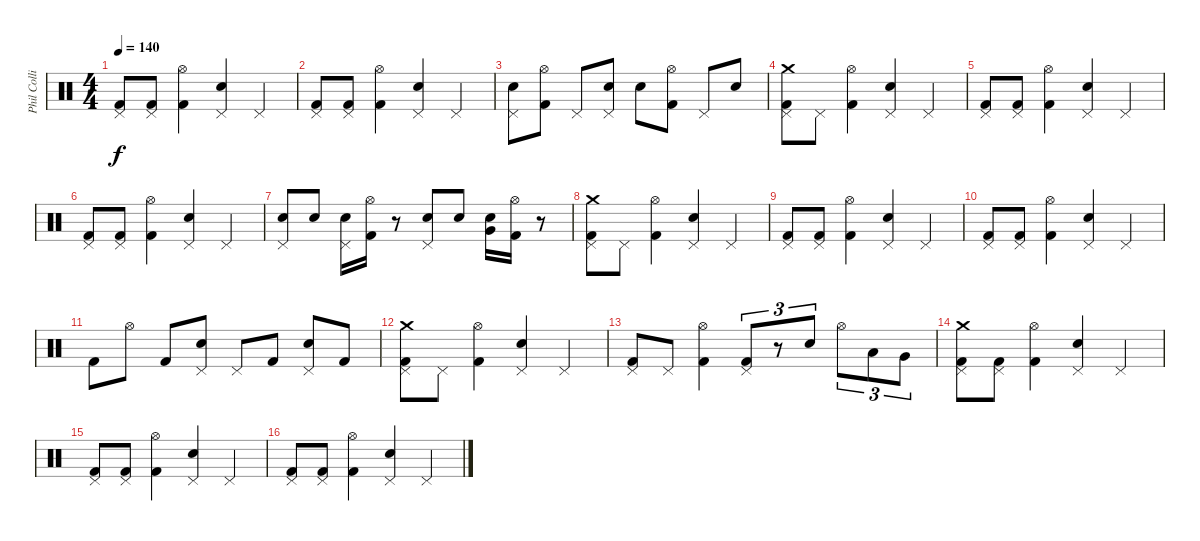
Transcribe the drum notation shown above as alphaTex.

\track ("Phil Collins (drums)" "Phil Colli") {instrument percussion}
\staff {score}
\articulation defaults
\ts (4 4)
\tempo 140
\clef neutral
\ks c
("Pedal Hi-Hat (hit)" "Kick (hit) 2").8{dy f} ("Pedal Hi-Hat (hit)" "Kick (hit) 2").8 ("Hi-Hat (open)" "Kick (hit) 2").4 ("Pedal Hi-Hat (hit)" "Electric Snare (hit)").4 "Pedal Hi-Hat (hit)".4 |
("Pedal Hi-Hat (hit)" "Kick (hit) 2").8 ("Pedal Hi-Hat (hit)" "Kick (hit) 2").8 ("Hi-Hat (open)" "Kick (hit) 2").4 ("Pedal Hi-Hat (hit)" "Electric Snare (hit)").4 "Pedal Hi-Hat (hit)".4 |
("Pedal Hi-Hat (hit)" "Electric Snare (hit)").8 ("Hi-Hat (open)" "Kick (hit) 2").8 "Pedal Hi-Hat (hit)".8 ("Pedal Hi-Hat (hit)" "Electric Snare (hit)").8 "Electric Snare (hit)".8 ("Hi-Hat (open)" "Kick (hit) 2").8 "Pedal Hi-Hat (hit)".8 "Electric Snare (hit)".8 |
("Crash medium (hit)" "Pedal Hi-Hat (hit)" "Kick (hit) 2").8 "Pedal Hi-Hat (hit)".8 ("Hi-Hat (open)" "Kick (hit) 2").4 ("Pedal Hi-Hat (hit)" "Electric Snare (hit)").4 "Pedal Hi-Hat (hit)".4 |
("Pedal Hi-Hat (hit)" "Kick (hit) 2").8 ("Pedal Hi-Hat (hit)" "Kick (hit) 2").8 ("Hi-Hat (open)" "Kick (hit) 2").4 ("Pedal Hi-Hat (hit)" "Electric Snare (hit)").4 "Pedal Hi-Hat (hit)".4 |
("Pedal Hi-Hat (hit)" "Kick (hit) 2").8 ("Pedal Hi-Hat (hit)" "Kick (hit) 2").8 ("Hi-Hat (open)" "Kick (hit) 2").4 ("Pedal Hi-Hat (hit)" "Electric Snare (hit)").4 "Pedal Hi-Hat (hit)".4 |
("Pedal Hi-Hat (hit)" "Electric Snare (hit)").8 "Electric Snare (hit)".8 ("Pedal Hi-Hat (hit)" "Electric Snare (hit)").16 ("Hi-Hat (open)" "Kick (hit) 2").16 r.8 ("Pedal Hi-Hat (hit)" "Electric Snare (hit)").8 "Electric Snare (hit)".8 ("Very Low Tom (hit)" "Electric Snare (hit)").16 ("Hi-Hat (open)" "Kick (hit) 2").16 r.8 |
("Crash medium (hit)" "Pedal Hi-Hat (hit)" "Kick (hit) 2").8 "Pedal Hi-Hat (hit)".8 ("Hi-Hat (open)" "Kick (hit) 2").4 ("Pedal Hi-Hat (hit)" "Electric Snare (hit)").4 "Pedal Hi-Hat (hit)".4 |
("Pedal Hi-Hat (hit)" "Kick (hit) 2").8 ("Pedal Hi-Hat (hit)" "Kick (hit) 2").8 ("Hi-Hat (open)" "Kick (hit) 2").4 ("Pedal Hi-Hat (hit)" "Electric Snare (hit)").4 "Pedal Hi-Hat (hit)".4 |
("Pedal Hi-Hat (hit)" "Kick (hit) 2").8 ("Pedal Hi-Hat (hit)" "Kick (hit) 2").8 ("Hi-Hat (open)" "Kick (hit) 2").4 ("Pedal Hi-Hat (hit)" "Electric Snare (hit)").4 "Pedal Hi-Hat (hit)".4 |
"Kick (hit) 2".8 "Hi-Hat (open)".8 "Kick (hit) 2".8 ("Pedal Hi-Hat (hit)" "Electric Snare (hit)").8 "Pedal Hi-Hat (hit)".8 "Kick (hit) 2".8 ("Pedal Hi-Hat (hit)" "Electric Snare (hit)").8 "Kick (hit) 2".8 |
("Crash medium (hit)" "Pedal Hi-Hat (hit)" "Kick (hit) 2").8 "Pedal Hi-Hat (hit)".8 ("Hi-Hat (open)" "Kick (hit) 2").4 ("Pedal Hi-Hat (hit)" "Electric Snare (hit)").4 "Pedal Hi-Hat (hit)".4 |
("Pedal Hi-Hat (hit)" "Kick (hit) 2").8 "Pedal Hi-Hat (hit)".8 ("Hi-Hat (open)" "Kick (hit) 2").4 ("Pedal Hi-Hat (hit)" "Kick (hit) 2").8{tu (3 2)} r.8{tu (3 2)} "Electric Snare (hit)".8{tu (3 2)} "Hi-Hat (open)".8{tu (3 2)} "Low Tom (hit)".8{tu (3 2)} "Very Low Tom (hit)".8{tu (3 2)} |
("Crash medium (hit)" "Pedal Hi-Hat (hit)" "Kick (hit) 2").8 ("Pedal Hi-Hat (hit)" "Kick (hit) 2").8 ("Hi-Hat (open)" "Kick (hit) 2").4 ("Pedal Hi-Hat (hit)" "Electric Snare (hit)").4 "Pedal Hi-Hat (hit)".4 |
("Pedal Hi-Hat (hit)" "Kick (hit) 2").8 ("Pedal Hi-Hat (hit)" "Kick (hit) 2").8 ("Hi-Hat (open)" "Kick (hit) 2").4 ("Pedal Hi-Hat (hit)" "Electric Snare (hit)").4 "Pedal Hi-Hat (hit)".4 |
("Pedal Hi-Hat (hit)" "Kick (hit) 2").8 ("Pedal Hi-Hat (hit)" "Kick (hit) 2").8 ("Hi-Hat (open)" "Kick (hit) 2").4 ("Pedal Hi-Hat (hit)" "Electric Snare (hit)").4 "Pedal Hi-Hat (hit)".4
